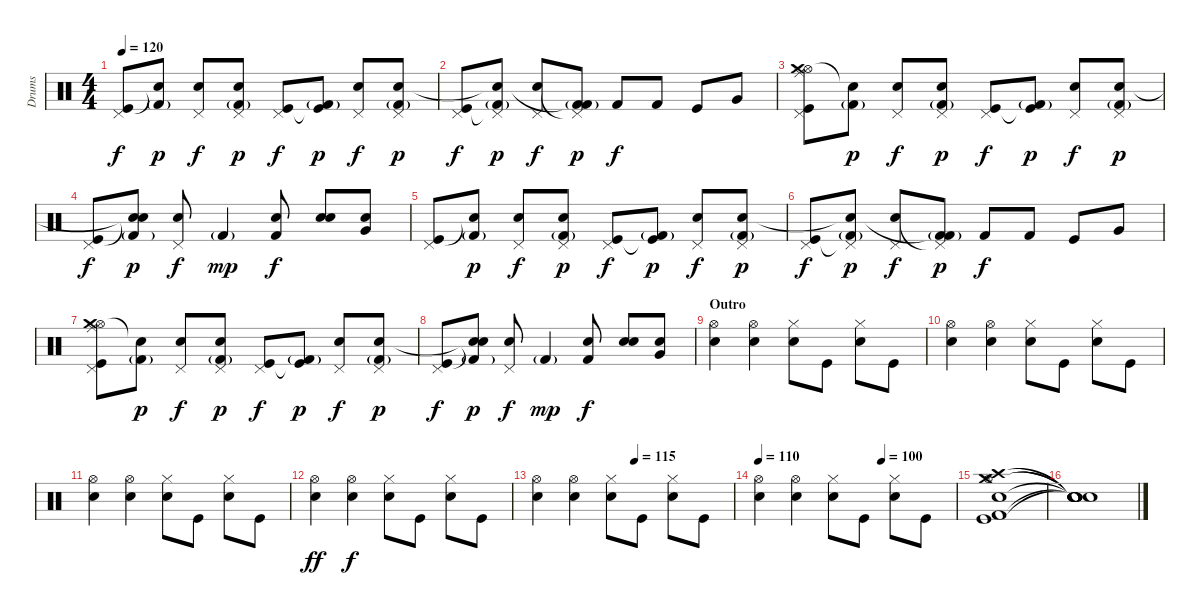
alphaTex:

\track ("Drums" "Drums") {instrument percussion}
\staff {score}
\articulation defaults
\ts (4 4)
\tempo 120
\clef neutral
\ks c
("Pedal Hi-Hat (hit)" "Kick (hit)").8{dy f} ("Kick (hit) 2"{g} "Snare (hit) 2"{t}).8{dy p} ("Pedal Hi-Hat (hit)" "Snare (hit) 2").8{dy f} ("Kick (hit) 2"{g} "Pedal Hi-Hat (hit)" "Snare (hit) 2").8{dy p} ("Pedal Hi-Hat (hit)" "Kick (hit)").8{dy f} ("Kick (hit) 2"{g} "Kick (hit)"{t}).8{dy p} ("Pedal Hi-Hat (hit)" "Snare (hit) 2").8{dy f} ("Kick (hit) 2"{g} "Pedal Hi-Hat (hit)" "Snare (hit) 2").8{dy p} |
("Pedal Hi-Hat (hit)" "Kick (hit)").8{dy f} ("Kick (hit) 2"{g} "Pedal Hi-Hat (hit)"{t} "Snare (hit) 2"{t}).8{dy p} ("Pedal Hi-Hat (hit)" "Snare (hit) 2").8{dy f} ("Kick (hit) 2"{g} "Pedal Hi-Hat (hit)"{t} "Kick (hit) 2"{t}).8{dy p} "Kick (hit) 2".8{dy f} "Kick (hit) 2".8 "Kick (hit)".8 "Very Low Tom (hit)".8 |
("Ride (middle)" "Hi-Hat (open)" "Crash medium (hit)" "Pedal Hi-Hat (hit)" "Kick (hit)").8 ("Kick (hit) 2"{g} "Snare (hit) 2"{t}).8{dy p} ("Pedal Hi-Hat (hit)" "Snare (hit) 2").8{dy f} ("Kick (hit) 2"{g} "Pedal Hi-Hat (hit)" "Snare (hit) 2").8{dy p} ("Pedal Hi-Hat (hit)" "Kick (hit)").8{dy f} ("Kick (hit) 2"{g} "Kick (hit)"{t}).8{dy p} ("Pedal Hi-Hat (hit)" "Snare (hit) 2").8{dy f} ("Kick (hit) 2"{g} "Pedal Hi-Hat (hit)" "Snare (hit) 2").8{dy p} |
("Pedal Hi-Hat (hit)" "Kick (hit)").8{dy f} ("Kick (hit) 2"{g} "Snare (hit)"{t} "Snare (hit)"{t}).8{dy p} ("Pedal Hi-Hat (hit)" "Snare (hit) 2").8{dy f} "Kick (hit) 2"{g}.4{dy mp} ("Kick (hit) 2" "Snare (hit) 2").8{dy f} ("Electric Snare (hit)" "Snare (hit) 2").8 ("Very Low Tom (hit)" "Snare (hit) 2").8 |
("Pedal Hi-Hat (hit)" "Kick (hit)").8 ("Kick (hit) 2"{g} "Snare (hit) 2"{t}).8{dy p} ("Pedal Hi-Hat (hit)" "Snare (hit) 2").8{dy f} ("Kick (hit) 2"{g} "Pedal Hi-Hat (hit)" "Snare (hit) 2").8{dy p} ("Pedal Hi-Hat (hit)" "Kick (hit)").8{dy f} ("Kick (hit) 2"{g} "Kick (hit)"{t}).8{dy p} ("Pedal Hi-Hat (hit)" "Snare (hit) 2").8{dy f} ("Kick (hit) 2"{g} "Pedal Hi-Hat (hit)" "Snare (hit) 2").8{dy p} |
("Pedal Hi-Hat (hit)" "Kick (hit)").8{dy f} ("Kick (hit) 2"{g} "Pedal Hi-Hat (hit)"{t} "Snare (hit) 2"{t}).8{dy p} ("Pedal Hi-Hat (hit)" "Snare (hit) 2").8{dy f} ("Kick (hit) 2"{g} "Pedal Hi-Hat (hit)"{t} "Kick (hit) 2"{t}).8{dy p} "Kick (hit) 2".8{dy f} "Kick (hit) 2".8 "Kick (hit)".8 "Very Low Tom (hit)".8 |
("Ride (middle)" "Hi-Hat (open)" "Crash medium (hit)" "Pedal Hi-Hat (hit)" "Kick (hit)").8 ("Kick (hit) 2"{g} "Snare (hit) 2"{t}).8{dy p} ("Pedal Hi-Hat (hit)" "Snare (hit) 2").8{dy f} ("Kick (hit) 2"{g} "Pedal Hi-Hat (hit)" "Snare (hit) 2").8{dy p} ("Pedal Hi-Hat (hit)" "Kick (hit)").8{dy f} ("Kick (hit) 2"{g} "Kick (hit)"{t}).8{dy p} ("Pedal Hi-Hat (hit)" "Snare (hit) 2").8{dy f} ("Kick (hit) 2"{g} "Pedal Hi-Hat (hit)" "Snare (hit) 2").8{dy p} |
("Pedal Hi-Hat (hit)" "Kick (hit)").8{dy f} ("Kick (hit) 2"{g} "Snare (hit)"{t} "Snare (hit)"{t}).8{dy p} ("Pedal Hi-Hat (hit)" "Snare (hit) 2").8{dy f} "Kick (hit) 2"{g}.4{dy mp} ("Kick (hit) 2" "Snare (hit) 2").8{dy f} ("Electric Snare (hit)" "Snare (hit) 2").8 ("Very Low Tom (hit)" "Snare (hit) 2").8 |
\section ("" "Outro")
("Hi-Hat (open)" "Electric Snare (hit)").4 ("Hi-Hat (open)" "Electric Snare (hit)").4 ("Hi-Hat (closed)" "Electric Snare (hit)").8 "Kick (hit)".8 ("Hi-Hat (closed)" "Electric Snare (hit)").8 "Kick (hit)".8 |
("Hi-Hat (open)" "Electric Snare (hit)").4 ("Hi-Hat (open)" "Electric Snare (hit)").4 ("Hi-Hat (closed)" "Electric Snare (hit)").8 "Kick (hit)".8 ("Hi-Hat (closed)" "Electric Snare (hit)").8 "Kick (hit)".8 |
("Hi-Hat (open)" "Electric Snare (hit)").4 ("Hi-Hat (open)" "Electric Snare (hit)").4 ("Hi-Hat (closed)" "Electric Snare (hit)").8 "Kick (hit)".8 ("Hi-Hat (closed)" "Electric Snare (hit)").8 "Kick (hit)".8 |
("Hi-Hat (open)" "Electric Snare (hit)").4{dy ff} ("Hi-Hat (open)" "Electric Snare (hit)").4{dy f} ("Hi-Hat (closed)" "Electric Snare (hit)").8 "Kick (hit)".8 ("Hi-Hat (closed)" "Electric Snare (hit)").8 "Kick (hit)".8 |
\tempo (115 0.5)
("Hi-Hat (open)" "Electric Snare (hit)").4 ("Hi-Hat (open)" "Electric Snare (hit)").4 ("Hi-Hat (closed)" "Electric Snare (hit)").8 "Kick (hit)".8 ("Hi-Hat (closed)" "Electric Snare (hit)").8 "Kick (hit)".8 |
\tempo 110
\tempo (100 0.625)
("Hi-Hat (open)" "Electric Snare (hit)").4 ("Hi-Hat (open)" "Electric Snare (hit)").4 ("Hi-Hat (closed)" "Electric Snare (hit)").8 "Kick (hit)".8 ("Hi-Hat (closed)" "Electric Snare (hit)").8 "Kick (hit)".8 |
("Hi-Hat (open)" "Kick (hit) 2" "Snare (hit) 2" "Kick (hit)" "Crash high (hit)" "Crash medium (hit)").1 |
("Snare (hit)"{t} "Snare (hit)"{t} "Snare (hit)"{t} "Snare (hit)"{t} "Snare (hit)"{t} "Snare (hit)"{t}).1
